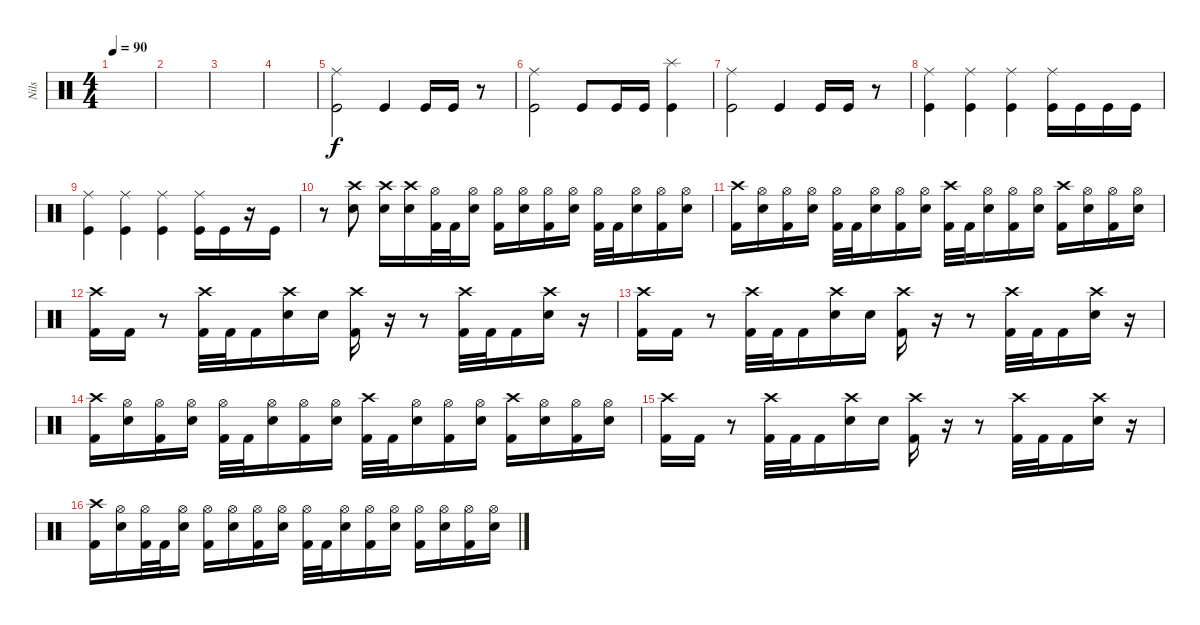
\track ("Nils" "Nils") {instrument percussion}
\staff {score}
\articulation defaults
\ts (4 4)
\tempo 90
\clef neutral
\ks c
|
|
|
|
("Ride (middle)" "Kick (hit)").2 "Kick (hit)".4 "Kick (hit)".16 "Kick (hit)".16 r.8 |
("Ride (middle)" "Kick (hit)").2 "Kick (hit)".8 "Kick (hit)".16 "Kick (hit)".16 ("Splash (hit)" "Kick (hit)").4 |
("Ride (middle)" "Kick (hit)").2 "Kick (hit)".4 "Kick (hit)".16 "Kick (hit)".16 r.8 |
("Ride (middle)" "Kick (hit)").4 ("Ride (middle)" "Kick (hit)").4 ("Ride (middle)" "Kick (hit)").4 ("Ride (middle)" "Kick (hit)").16 "Kick (hit)".16 "Kick (hit)".16 "Kick (hit)".16 |
("Ride (middle)" "Kick (hit)").4 ("Ride (middle)" "Kick (hit)").4 ("Ride (middle)" "Kick (hit)").4 ("Ride (middle)" "Kick (hit)").16 "Kick (hit)".16 r.16 "Kick (hit)".16 |
r.8 ("Crash high (hit)" "Snare (hit) 2").8 ("Crash high (hit)" "Snare (hit) 2").16 ("Crash high (hit)" "Snare (hit) 2").16 ("Hi-Hat (open)" "Kick (hit) 2").32 "Kick (hit) 2".32 ("Hi-Hat (open)" "Snare (hit) 2").16 ("Hi-Hat (open)" "Kick (hit) 2").16 ("Hi-Hat (open)" "Snare (hit) 2").16 ("Hi-Hat (open)" "Kick (hit) 2").16 ("Hi-Hat (open)" "Snare (hit) 2").16 ("Hi-Hat (open)" "Kick (hit) 2").32 "Kick (hit) 2".32 ("Hi-Hat (open)" "Snare (hit) 2").16 ("Hi-Hat (open)" "Kick (hit) 2").16 ("Hi-Hat (open)" "Snare (hit) 2").16 |
("Crash high (hit)" "Kick (hit) 2").16 ("Hi-Hat (open)" "Snare (hit) 2").16 ("Hi-Hat (open)" "Kick (hit) 2").16 ("Hi-Hat (open)" "Snare (hit) 2").16 ("Hi-Hat (open)" "Kick (hit) 2").32 "Kick (hit) 2".32 ("Hi-Hat (open)" "Snare (hit) 2").16 ("Hi-Hat (open)" "Kick (hit) 2").16 ("Hi-Hat (open)" "Snare (hit) 2").16 ("Crash high (hit)" "Kick (hit) 2").32 "Kick (hit) 2".32 ("Hi-Hat (open)" "Snare (hit) 2").16 ("Hi-Hat (open)" "Kick (hit) 2").16 ("Hi-Hat (open)" "Snare (hit) 2").16 ("Crash high (hit)" "Kick (hit) 2").16 ("Hi-Hat (open)" "Snare (hit) 2").16 ("Hi-Hat (open)" "Kick (hit) 2").16 ("Hi-Hat (open)" "Snare (hit) 2").16 |
("Crash high (hit)" "Kick (hit) 2").16 "Kick (hit) 2".16 r.8 ("Crash high (hit)" "Kick (hit) 2").32 "Kick (hit) 2".32 "Kick (hit) 2".16 ("Crash high (hit)" "Snare (hit) 2").16 "Snare (hit) 2".16 ("Crash high (hit)" "Kick (hit) 2").16 r.16 r.8 ("Crash high (hit)" "Kick (hit) 2").32 "Kick (hit) 2".32 "Kick (hit) 2".16 ("Crash high (hit)" "Snare (hit) 2").16 r.16 |
("Crash high (hit)" "Kick (hit) 2").16 "Kick (hit) 2".16 r.8 ("Crash high (hit)" "Kick (hit) 2").32 "Kick (hit) 2".32 "Kick (hit) 2".16 ("Crash high (hit)" "Snare (hit) 2").16 "Snare (hit) 2".16 ("Crash high (hit)" "Kick (hit) 2").16 r.16 r.8 ("Crash high (hit)" "Kick (hit) 2").32 "Kick (hit) 2".32 "Kick (hit) 2".16 ("Crash high (hit)" "Snare (hit) 2").16 r.16 |
("Crash high (hit)" "Kick (hit) 2").16 ("Hi-Hat (open)" "Snare (hit) 2").16 ("Hi-Hat (open)" "Kick (hit) 2").16 ("Hi-Hat (open)" "Snare (hit) 2").16 ("Hi-Hat (open)" "Kick (hit) 2").32 "Kick (hit) 2".32 ("Hi-Hat (open)" "Snare (hit) 2").16 ("Hi-Hat (open)" "Kick (hit) 2").16 ("Hi-Hat (open)" "Snare (hit) 2").16 ("Crash high (hit)" "Kick (hit) 2").32 "Kick (hit) 2".32 ("Hi-Hat (open)" "Snare (hit) 2").16 ("Hi-Hat (open)" "Kick (hit) 2").16 ("Hi-Hat (open)" "Snare (hit) 2").16 ("Crash high (hit)" "Kick (hit) 2").16 ("Hi-Hat (open)" "Snare (hit) 2").16 ("Hi-Hat (open)" "Kick (hit) 2").16 ("Hi-Hat (open)" "Snare (hit) 2").16 |
("Crash high (hit)" "Kick (hit) 2").16 "Kick (hit) 2".16 r.8 ("Crash high (hit)" "Kick (hit) 2").32 "Kick (hit) 2".32 "Kick (hit) 2".16 ("Crash high (hit)" "Snare (hit) 2").16 "Snare (hit) 2".16 ("Crash high (hit)" "Kick (hit) 2").16 r.16 r.8 ("Crash high (hit)" "Kick (hit) 2").32 "Kick (hit) 2".32 "Kick (hit) 2".16 ("Crash high (hit)" "Snare (hit) 2").16 r.16 |
("Crash high (hit)" "Kick (hit) 2").16 ("Hi-Hat (open)" "Snare (hit) 2").16 ("Hi-Hat (open)" "Kick (hit) 2").32 "Kick (hit) 2".32 ("Hi-Hat (open)" "Snare (hit) 2").16 ("Hi-Hat (open)" "Kick (hit) 2").16 ("Hi-Hat (open)" "Snare (hit) 2").16 ("Hi-Hat (open)" "Kick (hit) 2").16 ("Hi-Hat (open)" "Snare (hit) 2").16 ("Hi-Hat (open)" "Kick (hit) 2").32 "Kick (hit) 2".32 ("Hi-Hat (open)" "Snare (hit) 2").16 ("Hi-Hat (open)" "Kick (hit) 2").16 ("Hi-Hat (open)" "Snare (hit) 2").16 ("Hi-Hat (open)" "Kick (hit) 2").16 ("Hi-Hat (open)" "Snare (hit) 2").16 ("Hi-Hat (open)" "Kick (hit) 2").16 ("Hi-Hat (open)" "Snare (hit) 2").16
